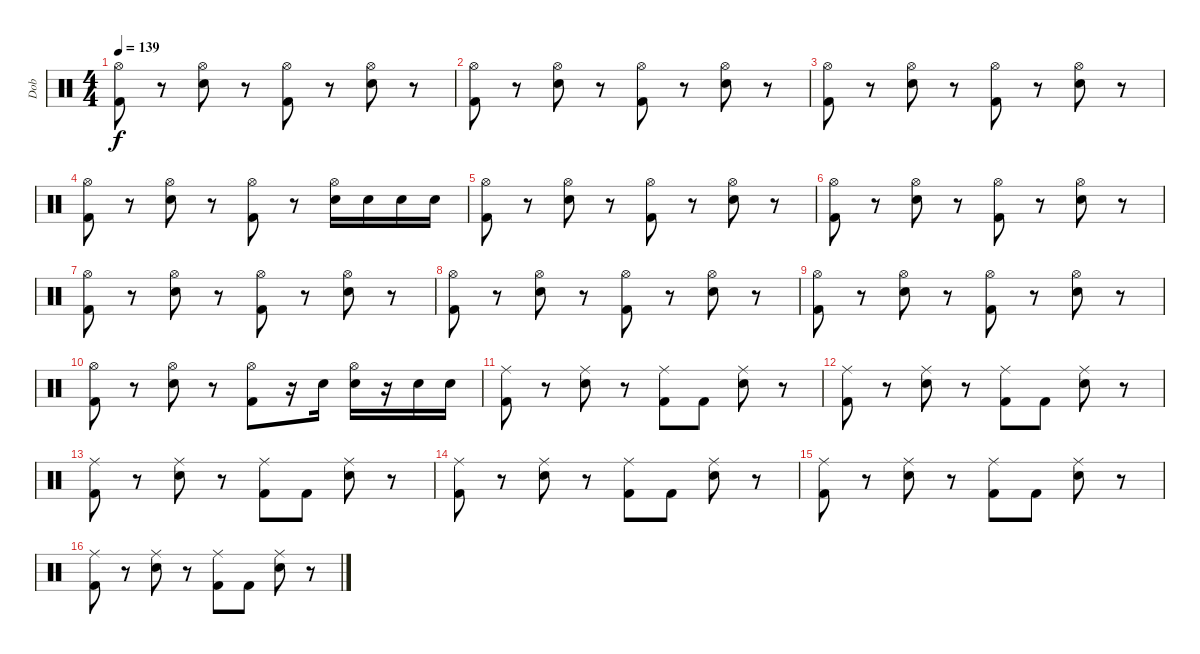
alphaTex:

\track ("Dob" "Dob") {instrument percussion}
\staff {score}
\articulation defaults
\ts (4 4)
\tempo 139
\clef neutral
\ks c
("Hi-Hat (open)" "Kick (hit) 2").8{dy f} r.8 ("Hi-Hat (open)" "Electric Snare (hit)").8 r.8 ("Hi-Hat (open)" "Kick (hit) 2").8 r.8 ("Hi-Hat (open)" "Electric Snare (hit)").8 r.8 |
("Hi-Hat (open)" "Kick (hit) 2").8 r.8 ("Hi-Hat (open)" "Electric Snare (hit)").8 r.8 ("Hi-Hat (open)" "Kick (hit) 2").8 r.8 ("Hi-Hat (open)" "Electric Snare (hit)").8 r.8 |
("Hi-Hat (open)" "Kick (hit) 2").8 r.8 ("Hi-Hat (open)" "Electric Snare (hit)").8 r.8 ("Hi-Hat (open)" "Kick (hit) 2").8 r.8 ("Hi-Hat (open)" "Electric Snare (hit)").8 r.8 |
("Hi-Hat (open)" "Kick (hit) 2").8 r.8 ("Hi-Hat (open)" "Electric Snare (hit)").8 r.8 ("Hi-Hat (open)" "Kick (hit) 2").8 r.8 ("Hi-Hat (open)" "Electric Snare (hit)").16 "Electric Snare (hit)".16 "Electric Snare (hit)".16 "Electric Snare (hit)".16 |
("Hi-Hat (open)" "Kick (hit) 2").8 r.8 ("Hi-Hat (open)" "Electric Snare (hit)").8 r.8 ("Hi-Hat (open)" "Kick (hit) 2").8 r.8 ("Hi-Hat (open)" "Electric Snare (hit)").8 r.8 |
("Hi-Hat (open)" "Kick (hit) 2").8 r.8 ("Hi-Hat (open)" "Electric Snare (hit)").8 r.8 ("Hi-Hat (open)" "Kick (hit) 2").8 r.8 ("Hi-Hat (open)" "Electric Snare (hit)").8 r.8 |
("Hi-Hat (open)" "Kick (hit) 2").8 r.8 ("Hi-Hat (open)" "Electric Snare (hit)").8 r.8 ("Hi-Hat (open)" "Kick (hit) 2").8 r.8 ("Hi-Hat (open)" "Electric Snare (hit)").8 r.8 |
("Hi-Hat (open)" "Kick (hit) 2").8 r.8 ("Hi-Hat (open)" "Electric Snare (hit)").8 r.8 ("Hi-Hat (open)" "Kick (hit) 2").8 r.8 ("Hi-Hat (open)" "Electric Snare (hit)").8 r.8 |
("Hi-Hat (open)" "Kick (hit) 2").8 r.8 ("Hi-Hat (open)" "Electric Snare (hit)").8 r.8 ("Hi-Hat (open)" "Kick (hit) 2").8 r.8 ("Hi-Hat (open)" "Electric Snare (hit)").8 r.8 |
("Hi-Hat (open)" "Kick (hit) 2").8 r.8 ("Hi-Hat (open)" "Electric Snare (hit)").8 r.8 ("Hi-Hat (open)" "Kick (hit) 2").8 r.16 "Electric Snare (hit)".16 ("Hi-Hat (open)" "Electric Snare (hit)").16 r.16 "Electric Snare (hit)".16 "Electric Snare (hit)".16 |
("Ride (middle)" "Kick (hit) 2").8 r.8 ("Ride (middle)" "Electric Snare (hit)").8 r.8 ("Ride (middle)" "Kick (hit) 2").8 "Kick (hit) 2".8 ("Ride (middle)" "Electric Snare (hit)").8 r.8 |
("Ride (middle)" "Kick (hit) 2").8 r.8 ("Ride (middle)" "Electric Snare (hit)").8 r.8 ("Ride (middle)" "Kick (hit) 2").8 "Kick (hit) 2".8 ("Ride (middle)" "Electric Snare (hit)").8 r.8 |
("Ride (middle)" "Kick (hit) 2").8 r.8 ("Ride (middle)" "Electric Snare (hit)").8 r.8 ("Ride (middle)" "Kick (hit) 2").8 "Kick (hit) 2".8 ("Ride (middle)" "Electric Snare (hit)").8 r.8 |
("Ride (middle)" "Kick (hit) 2").8 r.8 ("Ride (middle)" "Electric Snare (hit)").8 r.8 ("Ride (middle)" "Kick (hit) 2").8 "Kick (hit) 2".8 ("Ride (middle)" "Electric Snare (hit)").8 r.8 |
("Ride (middle)" "Kick (hit) 2").8 r.8 ("Ride (middle)" "Electric Snare (hit)").8 r.8 ("Ride (middle)" "Kick (hit) 2").8 "Kick (hit) 2".8 ("Ride (middle)" "Electric Snare (hit)").8 r.8 |
("Ride (middle)" "Kick (hit) 2").8 r.8 ("Ride (middle)" "Electric Snare (hit)").8 r.8 ("Ride (middle)" "Kick (hit) 2").8 "Kick (hit) 2".8 ("Ride (middle)" "Electric Snare (hit)").8 r.8
